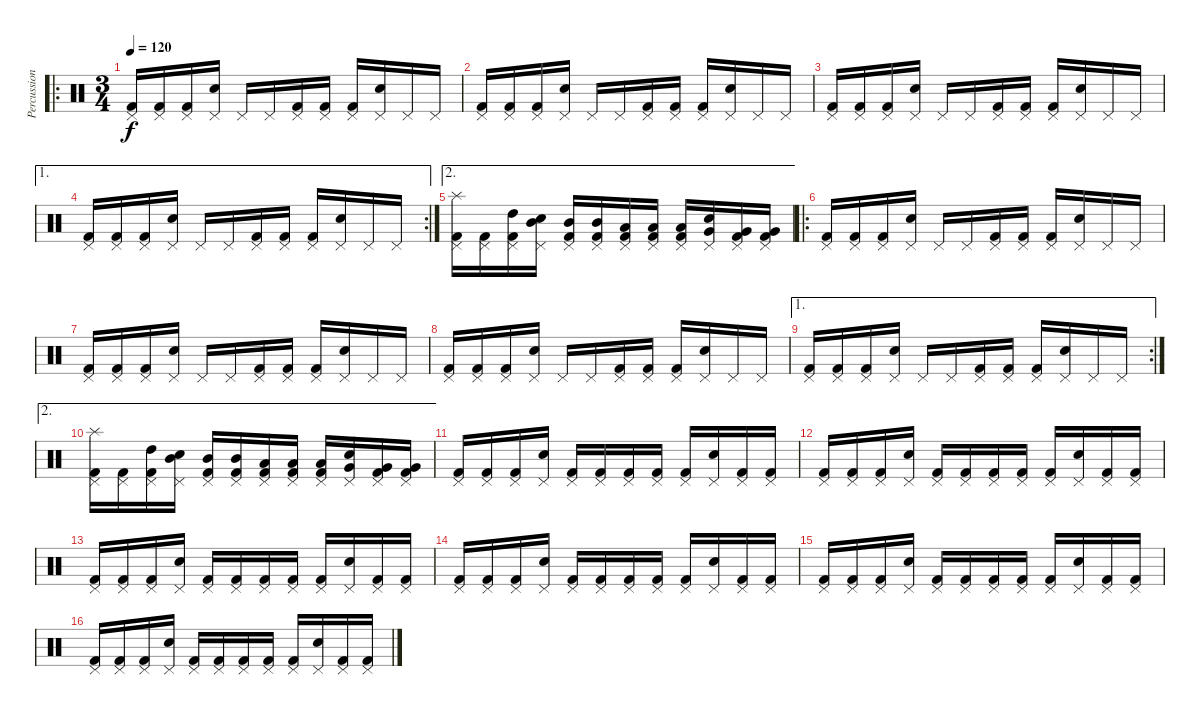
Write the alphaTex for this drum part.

\track ("Percussion" "Percussion") {instrument percussion}
\staff {score}
\articulation defaults
\ro
\ts (3 4)
\tempo 120
\clef neutral
\ks c
("Kick (hit) 2" "Pedal Hi-Hat (hit)").16{dy f} ("Kick (hit) 2" "Pedal Hi-Hat (hit)").16 ("Kick (hit) 2" "Pedal Hi-Hat (hit)").16 ("Pedal Hi-Hat (hit)" "Electric Snare (hit)").16 "Pedal Hi-Hat (hit)".16 "Pedal Hi-Hat (hit)".16 ("Kick (hit) 2" "Pedal Hi-Hat (hit)").16 ("Kick (hit) 2" "Pedal Hi-Hat (hit)").16 ("Kick (hit) 2" "Pedal Hi-Hat (hit)").16 ("Pedal Hi-Hat (hit)" "Electric Snare (hit)").16 "Pedal Hi-Hat (hit)".16 "Pedal Hi-Hat (hit)".16 |
("Kick (hit) 2" "Pedal Hi-Hat (hit)").16 ("Kick (hit) 2" "Pedal Hi-Hat (hit)").16 ("Kick (hit) 2" "Pedal Hi-Hat (hit)").16 ("Pedal Hi-Hat (hit)" "Electric Snare (hit)").16 "Pedal Hi-Hat (hit)".16 "Pedal Hi-Hat (hit)".16 ("Kick (hit) 2" "Pedal Hi-Hat (hit)").16 ("Kick (hit) 2" "Pedal Hi-Hat (hit)").16 ("Kick (hit) 2" "Pedal Hi-Hat (hit)").16 ("Pedal Hi-Hat (hit)" "Electric Snare (hit)").16 "Pedal Hi-Hat (hit)".16 "Pedal Hi-Hat (hit)".16 |
("Kick (hit) 2" "Pedal Hi-Hat (hit)").16 ("Kick (hit) 2" "Pedal Hi-Hat (hit)").16 ("Kick (hit) 2" "Pedal Hi-Hat (hit)").16 ("Pedal Hi-Hat (hit)" "Electric Snare (hit)").16 "Pedal Hi-Hat (hit)".16 "Pedal Hi-Hat (hit)".16 ("Kick (hit) 2" "Pedal Hi-Hat (hit)").16 ("Kick (hit) 2" "Pedal Hi-Hat (hit)").16 ("Kick (hit) 2" "Pedal Hi-Hat (hit)").16 ("Pedal Hi-Hat (hit)" "Electric Snare (hit)").16 "Pedal Hi-Hat (hit)".16 "Pedal Hi-Hat (hit)".16 |
\ae 1
\rc 2
("Kick (hit) 2" "Pedal Hi-Hat (hit)").16 ("Kick (hit) 2" "Pedal Hi-Hat (hit)").16 ("Kick (hit) 2" "Pedal Hi-Hat (hit)").16 ("Pedal Hi-Hat (hit)" "Electric Snare (hit)").16 "Pedal Hi-Hat (hit)".16 "Pedal Hi-Hat (hit)".16 ("Kick (hit) 2" "Pedal Hi-Hat (hit)").16 ("Kick (hit) 2" "Pedal Hi-Hat (hit)").16 ("Kick (hit) 2" "Pedal Hi-Hat (hit)").16 ("Pedal Hi-Hat (hit)" "Electric Snare (hit)").16 "Pedal Hi-Hat (hit)".16 "Pedal Hi-Hat (hit)".16 |
\ae 2
("Kick (hit) 2" "Pedal Hi-Hat (hit)" "Splash (hit)").16 ("Kick (hit) 2" "Pedal Hi-Hat (hit)").16 ("Kick (hit) 2" "Pedal Hi-Hat (hit)" "High Tom (hit)").16 ("Pedal Hi-Hat (hit)" "Electric Snare (hit)" "Mid Tom (hit)").16 ("Kick (hit) 2" "Pedal Hi-Hat (hit)" "Mid Tom (hit)").16 ("Kick (hit) 2" "Pedal Hi-Hat (hit)" "Mid Tom (hit)").16 ("Kick (hit) 2" "Pedal Hi-Hat (hit)" "Low Tom (hit)").16 ("Kick (hit) 2" "Pedal Hi-Hat (hit)" "Low Tom (hit)").16 ("Kick (hit) 2" "Pedal Hi-Hat (hit)" "Low Tom (hit)").16 ("Pedal Hi-Hat (hit)" "Electric Snare (hit)" "Very Low Tom (hit)").16 ("Kick (hit) 2" "Pedal Hi-Hat (hit)" "Very Low Tom (hit)").16 ("Kick (hit) 2" "Pedal Hi-Hat (hit)" "Very Low Tom (hit)").16 |
\ro
("Kick (hit) 2" "Pedal Hi-Hat (hit)").16 ("Kick (hit) 2" "Pedal Hi-Hat (hit)").16 ("Kick (hit) 2" "Pedal Hi-Hat (hit)").16 ("Pedal Hi-Hat (hit)" "Electric Snare (hit)").16 "Pedal Hi-Hat (hit)".16 "Pedal Hi-Hat (hit)".16 ("Kick (hit) 2" "Pedal Hi-Hat (hit)").16 ("Kick (hit) 2" "Pedal Hi-Hat (hit)").16 ("Kick (hit) 2" "Pedal Hi-Hat (hit)").16 ("Pedal Hi-Hat (hit)" "Electric Snare (hit)").16 "Pedal Hi-Hat (hit)".16 "Pedal Hi-Hat (hit)".16 |
("Kick (hit) 2" "Pedal Hi-Hat (hit)").16 ("Kick (hit) 2" "Pedal Hi-Hat (hit)").16 ("Kick (hit) 2" "Pedal Hi-Hat (hit)").16 ("Pedal Hi-Hat (hit)" "Electric Snare (hit)").16 "Pedal Hi-Hat (hit)".16 "Pedal Hi-Hat (hit)".16 ("Kick (hit) 2" "Pedal Hi-Hat (hit)").16 ("Kick (hit) 2" "Pedal Hi-Hat (hit)").16 ("Kick (hit) 2" "Pedal Hi-Hat (hit)").16 ("Pedal Hi-Hat (hit)" "Electric Snare (hit)").16 "Pedal Hi-Hat (hit)".16 "Pedal Hi-Hat (hit)".16 |
("Kick (hit) 2" "Pedal Hi-Hat (hit)").16 ("Kick (hit) 2" "Pedal Hi-Hat (hit)").16 ("Kick (hit) 2" "Pedal Hi-Hat (hit)").16 ("Pedal Hi-Hat (hit)" "Electric Snare (hit)").16 "Pedal Hi-Hat (hit)".16 "Pedal Hi-Hat (hit)".16 ("Kick (hit) 2" "Pedal Hi-Hat (hit)").16 ("Kick (hit) 2" "Pedal Hi-Hat (hit)").16 ("Kick (hit) 2" "Pedal Hi-Hat (hit)").16 ("Pedal Hi-Hat (hit)" "Electric Snare (hit)").16 "Pedal Hi-Hat (hit)".16 "Pedal Hi-Hat (hit)".16 |
\ae 1
\rc 2
("Kick (hit) 2" "Pedal Hi-Hat (hit)").16 ("Kick (hit) 2" "Pedal Hi-Hat (hit)").16 ("Kick (hit) 2" "Pedal Hi-Hat (hit)").16 ("Pedal Hi-Hat (hit)" "Electric Snare (hit)").16 "Pedal Hi-Hat (hit)".16 "Pedal Hi-Hat (hit)".16 ("Kick (hit) 2" "Pedal Hi-Hat (hit)").16 ("Kick (hit) 2" "Pedal Hi-Hat (hit)").16 ("Kick (hit) 2" "Pedal Hi-Hat (hit)").16 ("Pedal Hi-Hat (hit)" "Electric Snare (hit)").16 "Pedal Hi-Hat (hit)".16 "Pedal Hi-Hat (hit)".16 |
\ae 2
("Kick (hit) 2" "Pedal Hi-Hat (hit)" "Splash (hit)").16 ("Kick (hit) 2" "Pedal Hi-Hat (hit)").16 ("Kick (hit) 2" "Pedal Hi-Hat (hit)" "High Tom (hit)").16 ("Pedal Hi-Hat (hit)" "Electric Snare (hit)" "Mid Tom (hit)").16 ("Kick (hit) 2" "Pedal Hi-Hat (hit)" "Mid Tom (hit)").16 ("Kick (hit) 2" "Pedal Hi-Hat (hit)" "Mid Tom (hit)").16 ("Kick (hit) 2" "Pedal Hi-Hat (hit)" "Low Tom (hit)").16 ("Kick (hit) 2" "Pedal Hi-Hat (hit)" "Low Tom (hit)").16 ("Kick (hit) 2" "Pedal Hi-Hat (hit)" "Low Tom (hit)").16 ("Pedal Hi-Hat (hit)" "Electric Snare (hit)" "Very Low Tom (hit)").16 ("Kick (hit) 2" "Pedal Hi-Hat (hit)" "Very Low Tom (hit)").16 ("Kick (hit) 2" "Pedal Hi-Hat (hit)" "Very Low Tom (hit)").16 |
("Kick (hit) 2" "Pedal Hi-Hat (hit)").16 ("Kick (hit) 2" "Pedal Hi-Hat (hit)").16 ("Kick (hit) 2" "Pedal Hi-Hat (hit)").16 ("Pedal Hi-Hat (hit)" "Electric Snare (hit)").16 ("Kick (hit) 2" "Pedal Hi-Hat (hit)").16 ("Kick (hit) 2" "Pedal Hi-Hat (hit)").16 ("Kick (hit) 2" "Pedal Hi-Hat (hit)").16 ("Kick (hit) 2" "Pedal Hi-Hat (hit)").16 ("Kick (hit) 2" "Pedal Hi-Hat (hit)").16 ("Pedal Hi-Hat (hit)" "Electric Snare (hit)").16 ("Kick (hit) 2" "Pedal Hi-Hat (hit)").16 ("Kick (hit) 2" "Pedal Hi-Hat (hit)").16 |
("Kick (hit) 2" "Pedal Hi-Hat (hit)").16 ("Kick (hit) 2" "Pedal Hi-Hat (hit)").16 ("Kick (hit) 2" "Pedal Hi-Hat (hit)").16 ("Pedal Hi-Hat (hit)" "Electric Snare (hit)").16 ("Kick (hit) 2" "Pedal Hi-Hat (hit)").16 ("Kick (hit) 2" "Pedal Hi-Hat (hit)").16 ("Kick (hit) 2" "Pedal Hi-Hat (hit)").16 ("Kick (hit) 2" "Pedal Hi-Hat (hit)").16 ("Kick (hit) 2" "Pedal Hi-Hat (hit)").16 ("Pedal Hi-Hat (hit)" "Electric Snare (hit)").16 ("Kick (hit) 2" "Pedal Hi-Hat (hit)").16 ("Kick (hit) 2" "Pedal Hi-Hat (hit)").16 |
("Kick (hit) 2" "Pedal Hi-Hat (hit)").16 ("Kick (hit) 2" "Pedal Hi-Hat (hit)").16 ("Kick (hit) 2" "Pedal Hi-Hat (hit)").16 ("Pedal Hi-Hat (hit)" "Electric Snare (hit)").16 ("Kick (hit) 2" "Pedal Hi-Hat (hit)").16 ("Kick (hit) 2" "Pedal Hi-Hat (hit)").16 ("Kick (hit) 2" "Pedal Hi-Hat (hit)").16 ("Kick (hit) 2" "Pedal Hi-Hat (hit)").16 ("Kick (hit) 2" "Pedal Hi-Hat (hit)").16 ("Pedal Hi-Hat (hit)" "Electric Snare (hit)").16 ("Kick (hit) 2" "Pedal Hi-Hat (hit)").16 ("Kick (hit) 2" "Pedal Hi-Hat (hit)").16 |
("Kick (hit) 2" "Pedal Hi-Hat (hit)").16 ("Kick (hit) 2" "Pedal Hi-Hat (hit)").16 ("Kick (hit) 2" "Pedal Hi-Hat (hit)").16 ("Pedal Hi-Hat (hit)" "Electric Snare (hit)").16 ("Kick (hit) 2" "Pedal Hi-Hat (hit)").16 ("Kick (hit) 2" "Pedal Hi-Hat (hit)").16 ("Kick (hit) 2" "Pedal Hi-Hat (hit)").16 ("Kick (hit) 2" "Pedal Hi-Hat (hit)").16 ("Kick (hit) 2" "Pedal Hi-Hat (hit)").16 ("Pedal Hi-Hat (hit)" "Electric Snare (hit)").16 ("Kick (hit) 2" "Pedal Hi-Hat (hit)").16 ("Kick (hit) 2" "Pedal Hi-Hat (hit)").16 |
("Kick (hit) 2" "Pedal Hi-Hat (hit)").16 ("Kick (hit) 2" "Pedal Hi-Hat (hit)").16 ("Kick (hit) 2" "Pedal Hi-Hat (hit)").16 ("Pedal Hi-Hat (hit)" "Electric Snare (hit)").16 ("Kick (hit) 2" "Pedal Hi-Hat (hit)").16 ("Kick (hit) 2" "Pedal Hi-Hat (hit)").16 ("Kick (hit) 2" "Pedal Hi-Hat (hit)").16 ("Kick (hit) 2" "Pedal Hi-Hat (hit)").16 ("Kick (hit) 2" "Pedal Hi-Hat (hit)").16 ("Pedal Hi-Hat (hit)" "Electric Snare (hit)").16 ("Kick (hit) 2" "Pedal Hi-Hat (hit)").16 ("Kick (hit) 2" "Pedal Hi-Hat (hit)").16 |
("Kick (hit) 2" "Pedal Hi-Hat (hit)").16 ("Kick (hit) 2" "Pedal Hi-Hat (hit)").16 ("Kick (hit) 2" "Pedal Hi-Hat (hit)").16 ("Pedal Hi-Hat (hit)" "Electric Snare (hit)").16 ("Kick (hit) 2" "Pedal Hi-Hat (hit)").16 ("Kick (hit) 2" "Pedal Hi-Hat (hit)").16 ("Kick (hit) 2" "Pedal Hi-Hat (hit)").16 ("Kick (hit) 2" "Pedal Hi-Hat (hit)").16 ("Kick (hit) 2" "Pedal Hi-Hat (hit)").16 ("Pedal Hi-Hat (hit)" "Electric Snare (hit)").16 ("Kick (hit) 2" "Pedal Hi-Hat (hit)").16 ("Kick (hit) 2" "Pedal Hi-Hat (hit)").16
